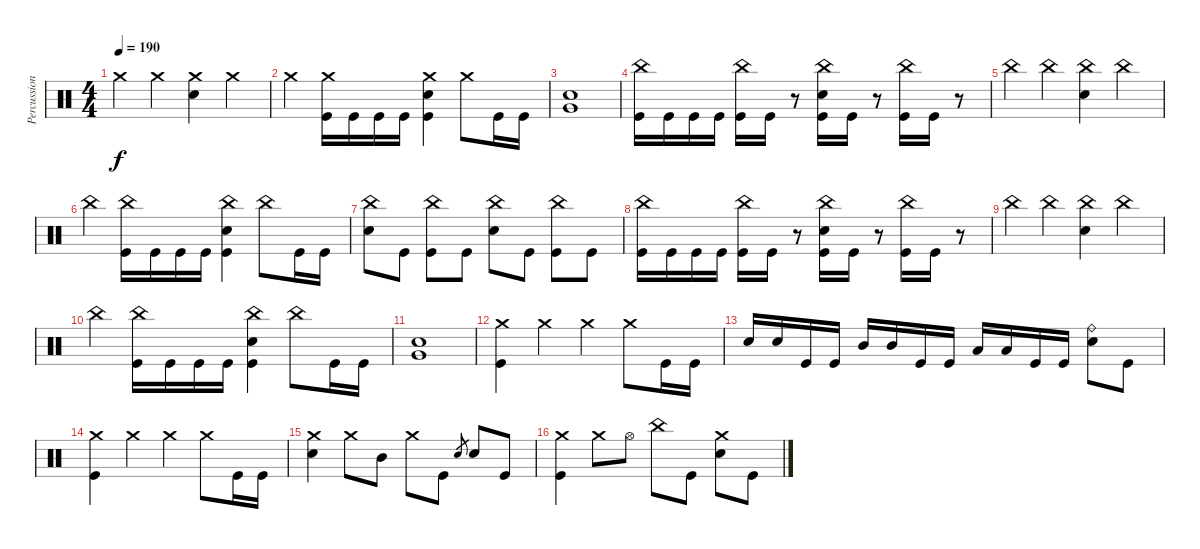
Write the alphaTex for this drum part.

\track ("Percussion" "Percussion") {instrument percussion}
\staff {score}
\articulation defaults
\ts (4 4)
\tempo 190
\clef neutral
\ks c "Crash medium (hit)".4{dy f} "Crash medium (hit)".4
("Crash medium (hit)" "Snare (hit) 2").4 "Crash medium (hit)".4 |
"Crash medium (hit)".4 ("Crash medium (hit)" "Kick (hit)").16 "Kick (hit)".16 "Kick (hit)".16 "Kick (hit)".16 ("Crash medium (hit)" "Snare (hit) 2" "Kick (hit)").4 "Crash medium (hit)".8 "Kick (hit)".16 "Kick (hit)".16 |
("Very Low Tom (hit)" "Snare (hit) 2").1 |
("China (hit)" "Kick (hit)").16 "Kick (hit)".16 "Kick (hit)".16 "Kick (hit)".16 ("China (hit)" "Kick (hit)").16 "Kick (hit)".16 r.8 ("China (hit)" "Snare (hit) 2" "Kick (hit)").16 "Kick (hit)".16 r.8 ("China (hit)" "Kick (hit)").16 "Kick (hit)".16 r.8 |
"China (hit)".4 "China (hit)".4 ("China (hit)" "Snare (hit) 2").4 "China (hit)".4 |
"China (hit)".4 ("China (hit)" "Kick (hit)").16 "Kick (hit)".16 "Kick (hit)".16 "Kick (hit)".16 ("China (hit)" "Snare (hit) 2" "Kick (hit)").4 "China (hit)".8 "Kick (hit)".16 "Kick (hit)".16 |
("China (hit)" "Snare (hit) 2").8 "Kick (hit)".8 ("China (hit)" "Kick (hit)").8 "Kick (hit)".8 ("China (hit)" "Snare (hit) 2").8 "Kick (hit)".8 ("China (hit)" "Kick (hit)").8 "Kick (hit)".8 |
("China (hit)" "Kick (hit)").16 "Kick (hit)".16 "Kick (hit)".16 "Kick (hit)".16 ("China (hit)" "Kick (hit)").16 "Kick (hit)".16 r.8 ("China (hit)" "Snare (hit) 2" "Kick (hit)").16 "Kick (hit)".16 r.8 ("China (hit)" "Kick (hit)").16 "Kick (hit)".16 r.8 |
"China (hit)".4 "China (hit)".4 ("China (hit)" "Snare (hit) 2").4 "China (hit)".4 |
"China (hit)".4 ("China (hit)" "Kick (hit)").16 "Kick (hit)".16 "Kick (hit)".16 "Kick (hit)".16 ("China (hit)" "Snare (hit) 2" "Kick (hit)").4 "China (hit)".8 "Kick (hit)".16 "Kick (hit)".16 |
("Very Low Tom (hit)" "Snare (hit) 2").1 |
("Crash medium (hit)" "Kick (hit)").4 "Crash medium (hit)".4 "Crash medium (hit)".4 "Crash medium (hit)".8 "Kick (hit)".16 "Kick (hit)".16 |
"Snare (hit) 2".16 "Snare (hit) 2".16 "Kick (hit)".16 "Kick (hit)".16 "Mid Tom (hit)".16 "Mid Tom (hit)".16 "Kick (hit)".16 "Kick (hit)".16 "Low Tom (hit)".16 "Low Tom (hit)".16 "Kick (hit)".16 "Kick (hit)".16 ("Ride (bell)" "Snare (hit) 2").8 "Kick (hit)".8 |
("Crash medium (hit)" "Kick (hit)").4 "Crash medium (hit)".4 "Crash medium (hit)".4 "Crash medium (hit)".8 "Kick (hit)".16 "Kick (hit)".16 |
("Crash medium (hit)" "Snare (hit) 2").4 "Crash medium (hit)".8 "Mid Tom (hit)".8 "Crash medium (hit)".8 "Kick (hit)".8 "Snare (hit) 2".8{gr} "Snare (hit) 2".8 "Kick (hit)".8 |
("Crash medium (hit)" "Kick (hit)").4 "Crash medium (hit)".8 "Hi-Hat (open)".8 "China (hit)".8 "Kick (hit)".8 ("Crash medium (hit)" "Snare (hit) 2").8 "Kick (hit)".8
